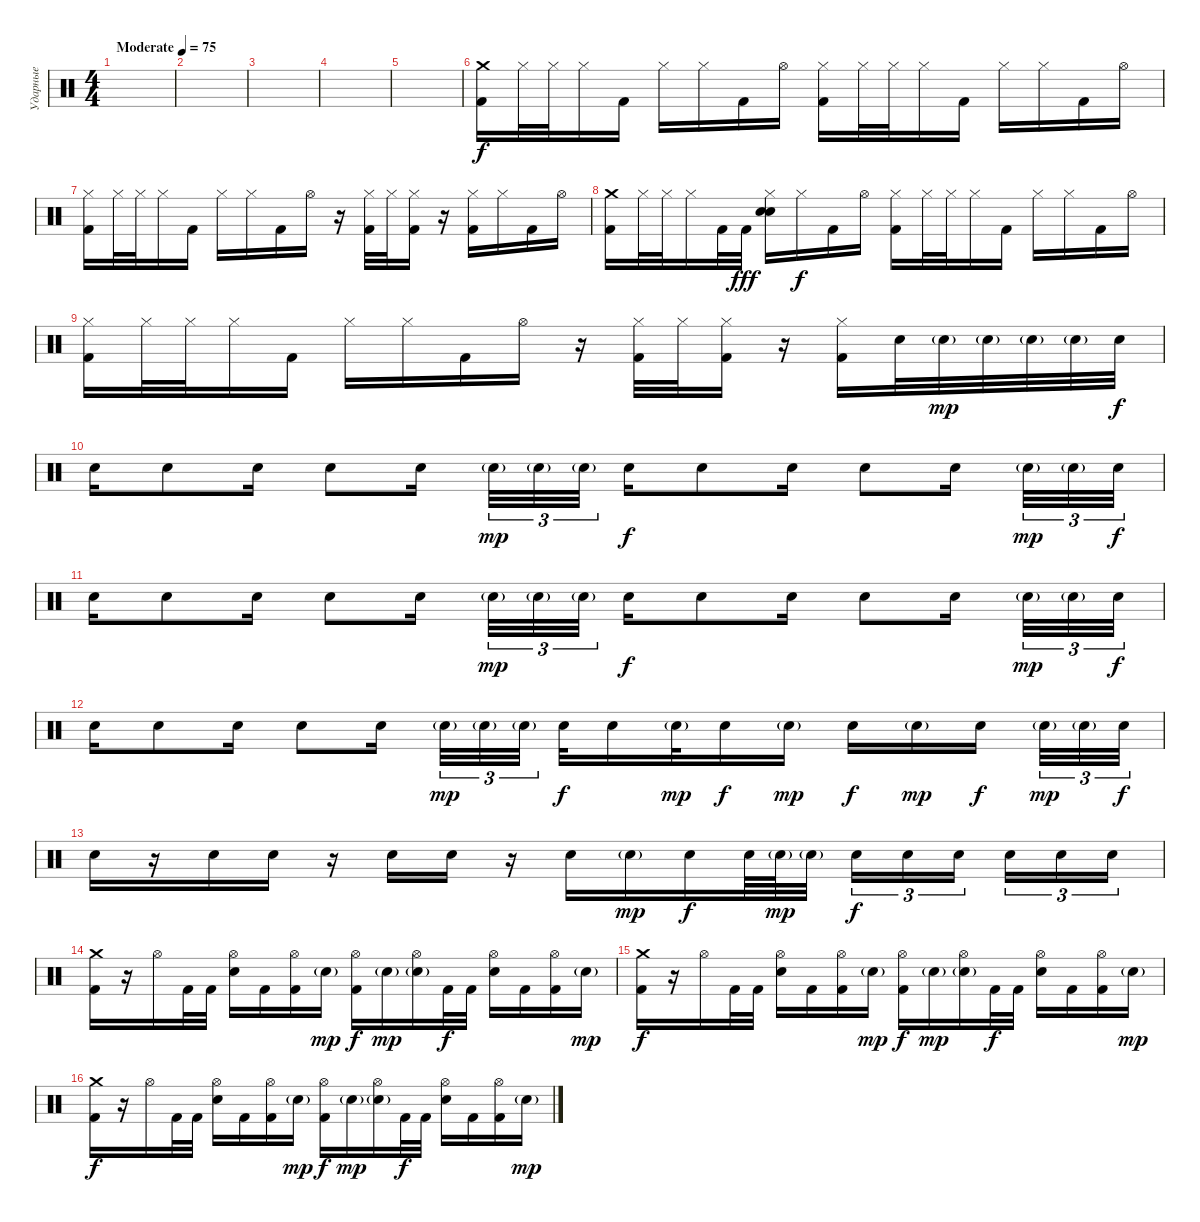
\track ("Ударные" "Ударные") {instrument percussion}
\staff {score}
\articulation defaults
\ts (4 4)
\tempo (75 "Moderate")
\clef neutral
\ks c
|
|
|
|
|
("Crash medium (hit)" "Kick (hit) 2").16 "Hi-Hat (closed)".32 "Hi-Hat (closed)".32 "Hi-Hat (closed)".16 "Kick (hit) 2".16 "Hi-Hat (closed)".16 "Hi-Hat (closed)".16 "Kick (hit) 2".16 "Hi-Hat (open)".16 ("Hi-Hat (closed)" "Kick (hit) 2").16 "Hi-Hat (closed)".32 "Hi-Hat (closed)".32 "Hi-Hat (closed)".16 "Kick (hit) 2".16 "Hi-Hat (closed)".16 "Hi-Hat (closed)".16 "Kick (hit) 2".16 "Hi-Hat (open)".16 |
("Hi-Hat (closed)" "Kick (hit) 2").16 "Hi-Hat (closed)".32 "Hi-Hat (closed)".32 "Hi-Hat (closed)".16 "Kick (hit) 2".16 "Hi-Hat (closed)".16 "Hi-Hat (closed)".16 "Kick (hit) 2".16 "Hi-Hat (open)".16 r.16 ("Hi-Hat (closed)" "Kick (hit) 2").32 "Hi-Hat (closed)".32 ("Hi-Hat (closed)" "Kick (hit) 2").16 r.16 ("Hi-Hat (closed)" "Kick (hit) 2").16 "Hi-Hat (closed)".16 "Kick (hit) 2".16 "Hi-Hat (open)".16 |
("Crash medium (hit)" "Kick (hit) 2").16 "Hi-Hat (closed)".32 "Hi-Hat (closed)".32 "Hi-Hat (closed)".16 "Kick (hit) 2".32 "Kick (hit) 2".32{dy fff} ("Hi-Hat (closed)" "Snare (hit) 2" "Hand Clap (hit)").16 "Hi-Hat (closed)".16{dy f} "Kick (hit) 2".16 "Hi-Hat (open)".16 ("Hi-Hat (closed)" "Kick (hit) 2").16 "Hi-Hat (closed)".32 "Hi-Hat (closed)".32 "Hi-Hat (closed)".16 "Kick (hit) 2".16 "Hi-Hat (closed)".16 "Hi-Hat (closed)".16 "Kick (hit) 2".16 "Hi-Hat (open)".16 |
("Hi-Hat (closed)" "Kick (hit) 2").16 "Hi-Hat (closed)".32 "Hi-Hat (closed)".32 "Hi-Hat (closed)".16 "Kick (hit) 2".16 "Hi-Hat (closed)".16 "Hi-Hat (closed)".16 "Kick (hit) 2".16 "Hi-Hat (open)".16 r.16 ("Hi-Hat (closed)" "Kick (hit) 2").32 "Hi-Hat (closed)".32 ("Hi-Hat (closed)" "Kick (hit) 2").16 r.16 ("Hi-Hat (closed)" "Kick (hit) 2").16 "Snare (hit) 2".32 "Snare (hit) 2"{g}.32{dy mp} "Snare (hit) 2"{g}.32 "Snare (hit) 2"{g}.32 "Snare (hit) 2"{g}.32 "Snare (hit) 2".32{dy f} |
"Snare (hit) 2".16 "Snare (hit) 2".8 "Snare (hit) 2".16 "Snare (hit) 2".8 "Snare (hit) 2".16{beam splitsecondary} "Snare (hit) 2"{g}.32{tu (3 2) dy mp} "Snare (hit) 2"{g}.32{tu (3 2)} "Snare (hit) 2"{g}.32{tu (3 2)} "Snare (hit) 2".16{dy f} "Snare (hit) 2".8 "Snare (hit) 2".16 "Snare (hit) 2".8 "Snare (hit) 2".16{beam splitsecondary} "Snare (hit) 2"{g}.32{tu (3 2) dy mp} "Snare (hit) 2"{g}.32{tu (3 2)} "Snare (hit) 2".32{tu (3 2) dy f} |
"Snare (hit) 2".16 "Snare (hit) 2".8 "Snare (hit) 2".16 "Snare (hit) 2".8 "Snare (hit) 2".16{beam splitsecondary} "Snare (hit) 2"{g}.32{tu (3 2) dy mp} "Snare (hit) 2"{g}.32{tu (3 2)} "Snare (hit) 2"{g}.32{tu (3 2)} "Snare (hit) 2".16{dy f} "Snare (hit) 2".8 "Snare (hit) 2".16 "Snare (hit) 2".8 "Snare (hit) 2".16{beam splitsecondary} "Snare (hit) 2"{g}.32{tu (3 2) dy mp} "Snare (hit) 2"{g}.32{tu (3 2)} "Snare (hit) 2".32{tu (3 2) dy f} |
"Snare (hit) 2".16 "Snare (hit) 2".8 "Snare (hit) 2".16 "Snare (hit) 2".8 "Snare (hit) 2".16{beam splitsecondary} "Snare (hit) 2"{g}.32{tu (3 2) dy mp} "Snare (hit) 2"{g}.32{tu (3 2)} "Snare (hit) 2"{g}.32{tu (3 2)} "Snare (hit) 2".32{dy f} "Snare (hit) 2".16 "Snare (hit) 2"{g}.32{dy mp} "Snare (hit) 2".16{dy f} "Snare (hit) 2"{g}.16{dy mp} "Snare (hit) 2".16{dy f} "Snare (hit) 2"{g}.16{dy mp} "Snare (hit) 2".16{dy f beam splitsecondary} "Snare (hit) 2"{g}.32{tu (3 2) dy mp} "Snare (hit) 2"{g}.32{tu (3 2)} "Snare (hit) 2".32{tu (3 2) dy f} |
"Snare (hit) 2".16 r.16 "Snare (hit) 2".16 "Snare (hit) 2".16 r.16 "Snare (hit) 2".16 "Snare (hit) 2".16 r.16 "Snare (hit) 2".16 "Snare (hit) 2"{g}.16{dy mp} "Snare (hit) 2".16{dy f} "Snare (hit) 2".64 "Snare (hit) 2"{g}.64{dy mp} "Snare (hit) 2"{g}.32 "Snare (hit) 2".16{tu (3 2) dy f} "Snare (hit) 2".16{tu (3 2)} "Snare (hit) 2".16{tu (3 2) beam splitsecondary} "Snare (hit) 2".16{tu (3 2)} "Snare (hit) 2".16{tu (3 2)} "Snare (hit) 2".16{tu (3 2)} |
("Crash medium (hit)" "Kick (hit) 2").16 r.16 "Hi-Hat (open)".16 "Kick (hit) 2".32 "Kick (hit) 2".32 ("Hi-Hat (open)" "Electric Snare (hit)").16 "Kick (hit) 2".16 ("Hi-Hat (open)" "Kick (hit) 2").16 "Electric Snare (hit)"{g}.16{dy mp} ("Hi-Hat (open)" "Kick (hit) 2").16{dy f} "Electric Snare (hit)"{g}.16{dy mp} ("Hi-Hat (open)" "Electric Snare (hit)"{g}).16 "Kick (hit) 2".32{dy f} "Kick (hit) 2".32 ("Hi-Hat (open)" "Electric Snare (hit)").16 "Kick (hit) 2".16 ("Hi-Hat (open)" "Kick (hit) 2").16 "Electric Snare (hit)"{g}.16{dy mp} |
("Crash medium (hit)" "Kick (hit) 2").16{dy f} r.16 "Hi-Hat (open)".16 "Kick (hit) 2".32 "Kick (hit) 2".32 ("Hi-Hat (open)" "Electric Snare (hit)").16 "Kick (hit) 2".16 ("Hi-Hat (open)" "Kick (hit) 2").16 "Electric Snare (hit)"{g}.16{dy mp} ("Hi-Hat (open)" "Kick (hit) 2").16{dy f} "Electric Snare (hit)"{g}.16{dy mp} ("Hi-Hat (open)" "Electric Snare (hit)"{g}).16 "Kick (hit) 2".32{dy f} "Kick (hit) 2".32 ("Hi-Hat (open)" "Electric Snare (hit)").16 "Kick (hit) 2".16 ("Hi-Hat (open)" "Kick (hit) 2").16 "Electric Snare (hit)"{g}.16{dy mp} |
("Crash medium (hit)" "Kick (hit) 2").16{dy f} r.16 "Hi-Hat (open)".16 "Kick (hit) 2".32 "Kick (hit) 2".32 ("Hi-Hat (open)" "Electric Snare (hit)").16 "Kick (hit) 2".16 ("Hi-Hat (open)" "Kick (hit) 2").16 "Electric Snare (hit)"{g}.16{dy mp} ("Hi-Hat (open)" "Kick (hit) 2").16{dy f} "Electric Snare (hit)"{g}.16{dy mp} ("Hi-Hat (open)" "Electric Snare (hit)"{g}).16 "Kick (hit) 2".32{dy f} "Kick (hit) 2".32 ("Hi-Hat (open)" "Electric Snare (hit)").16 "Kick (hit) 2".16 ("Hi-Hat (open)" "Kick (hit) 2").16 "Electric Snare (hit)"{g}.16{dy mp}
